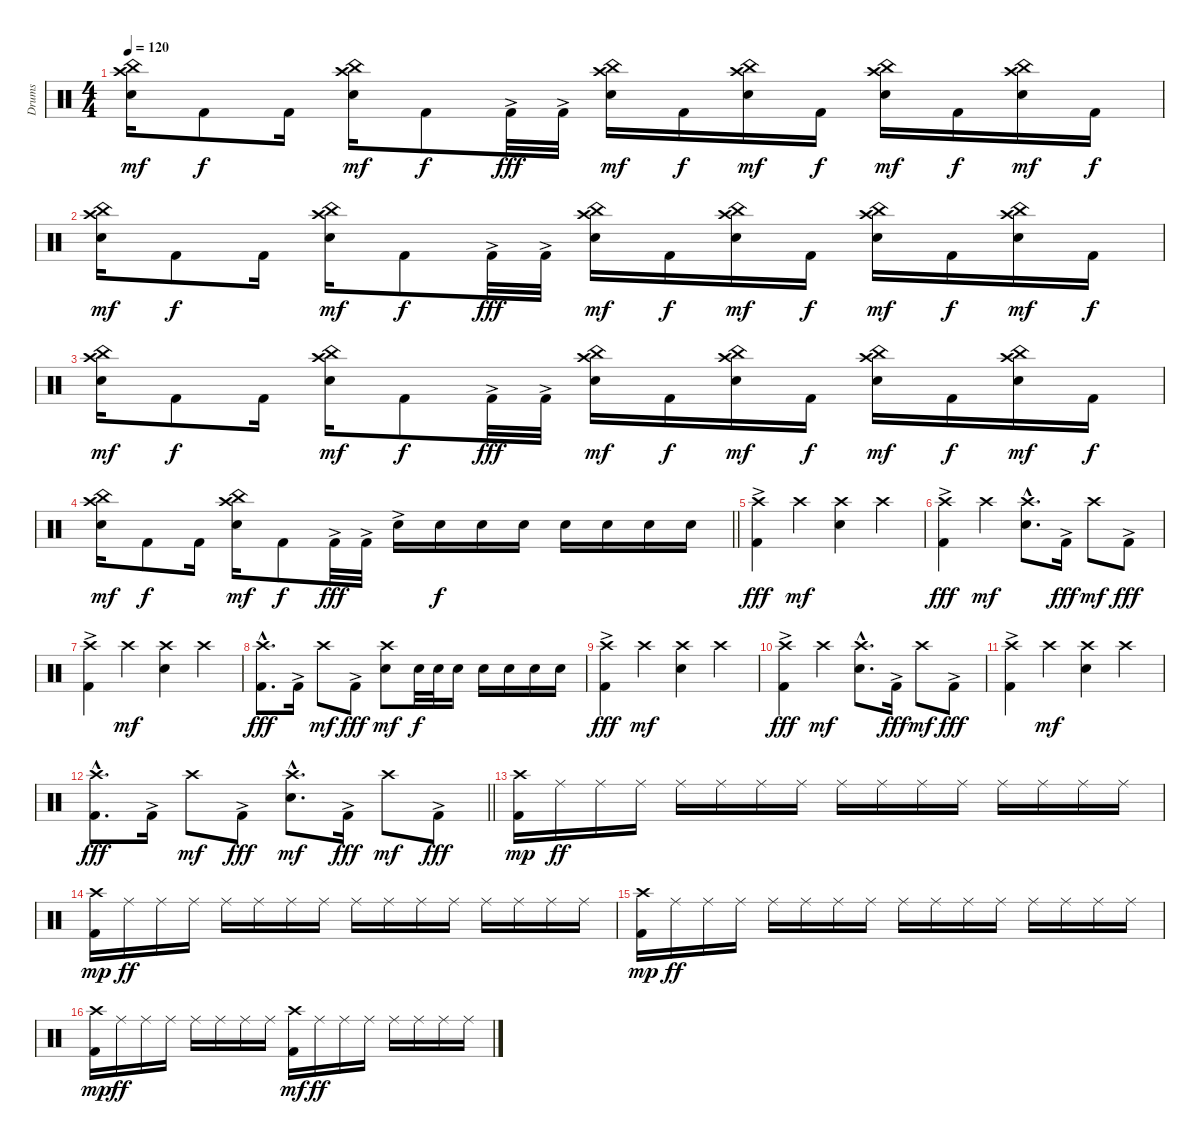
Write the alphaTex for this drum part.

\track ("Drums" "Drums") {instrument percussion}
\staff {score}
\articulation defaults
\ts (4 4)
\tempo 120
\clef neutral
\ks c
("Crash high (hit)" "China (hit)" "Snare (hit) 2").16{dy mf} "Kick (hit) 2".8{dy f} "Kick (hit) 2".16 ("Crash high (hit)" "China (hit)" "Snare (hit) 2").16{dy mf} "Kick (hit) 2".8{dy f} "Kick (hit) 2"{ac}.32{dy fff} "Kick (hit) 2"{ac}.32 ("Crash high (hit)" "China (hit)" "Snare (hit) 2").16{dy mf} "Kick (hit) 2".16{dy f} ("Crash high (hit)" "China (hit)" "Snare (hit) 2").16{dy mf} "Kick (hit) 2".16{dy f} ("Crash high (hit)" "China (hit)" "Snare (hit) 2").16{dy mf} "Kick (hit) 2".16{dy f} ("Crash high (hit)" "China (hit)" "Snare (hit) 2").16{dy mf} "Kick (hit) 2".16{dy f} |
("Crash high (hit)" "China (hit)" "Snare (hit) 2").16{dy mf} "Kick (hit) 2".8{dy f} "Kick (hit) 2".16 ("Crash high (hit)" "China (hit)" "Snare (hit) 2").16{dy mf} "Kick (hit) 2".8{dy f} "Kick (hit) 2"{ac}.32{dy fff} "Kick (hit) 2"{ac}.32 ("Crash high (hit)" "China (hit)" "Snare (hit) 2").16{dy mf} "Kick (hit) 2".16{dy f} ("Crash high (hit)" "China (hit)" "Snare (hit) 2").16{dy mf} "Kick (hit) 2".16{dy f} ("Crash high (hit)" "China (hit)" "Snare (hit) 2").16{dy mf} "Kick (hit) 2".16{dy f} ("Crash high (hit)" "China (hit)" "Snare (hit) 2").16{dy mf} "Kick (hit) 2".16{dy f} |
("Crash high (hit)" "China (hit)" "Snare (hit) 2").16{dy mf} "Kick (hit) 2".8{dy f} "Kick (hit) 2".16 ("Crash high (hit)" "China (hit)" "Snare (hit) 2").16{dy mf} "Kick (hit) 2".8{dy f} "Kick (hit) 2"{ac}.32{dy fff} "Kick (hit) 2"{ac}.32 ("Crash high (hit)" "China (hit)" "Snare (hit) 2").16{dy mf} "Kick (hit) 2".16{dy f} ("Crash high (hit)" "China (hit)" "Snare (hit) 2").16{dy mf} "Kick (hit) 2".16{dy f} ("Crash high (hit)" "China (hit)" "Snare (hit) 2").16{dy mf} "Kick (hit) 2".16{dy f} ("Crash high (hit)" "China (hit)" "Snare (hit) 2").16{dy mf} "Kick (hit) 2".16{dy f} |
\barLineRight lightlight
("Crash high (hit)" "China (hit)" "Snare (hit) 2").16{dy mf} "Kick (hit) 2".8{dy f} "Kick (hit) 2".16 ("Crash high (hit)" "China (hit)" "Snare (hit) 2").16{dy mf} "Kick (hit) 2".8{dy f} "Kick (hit) 2"{ac}.32{dy fff} "Kick (hit) 2"{ac}.32 "Snare (hit) 2"{ac}.16 "Snare (hit) 2".16{dy f} "Snare (hit) 2".16 "Snare (hit) 2".16 "Snare (hit) 2".16 "Snare (hit) 2".16 "Snare (hit) 2".16 "Snare (hit) 2".16 |
("Crash high (hit)"{ac} "Kick (hit) 2"{ac}).4{dy fff} "Crash high (hit)".4{dy mf} ("Crash high (hit)" "Snare (hit) 2").4 "Crash high (hit)".4 |
("Crash high (hit)" "Kick (hit) 2"{ac}).4{dy fff} "Crash high (hit)".4{dy mf} ("Crash high (hit)"{hac} "Snare (hit) 2"{hac}).8{d} "Kick (hit) 2"{ac}.16{dy fff} "Crash high (hit)".8{dy mf} "Kick (hit) 2"{ac}.8{dy fff} |
("Crash high (hit)" "Kick (hit) 2"{ac}).4 "Crash high (hit)".4{dy mf} ("Crash high (hit)" "Snare (hit) 2").4 "Crash high (hit)".4 |
("Crash high (hit)"{hac} "Kick (hit) 2"{hac}).8{d dy fff} "Kick (hit) 2"{ac}.16 "Crash high (hit)".8{dy mf} "Kick (hit) 2"{ac}.8{dy fff} ("Crash high (hit)" "Snare (hit) 2").8{dy mf} "Snare (hit) 2".32{dy f} "Snare (hit) 2".32 "Snare (hit) 2".16 "Snare (hit) 2".16 "Snare (hit) 2".16 "Snare (hit) 2".16 "Snare (hit) 2".16 |
("Crash high (hit)"{ac} "Kick (hit) 2"{ac}).4{dy fff} "Crash high (hit)".4{dy mf} ("Crash high (hit)" "Snare (hit) 2").4 "Crash high (hit)".4 |
("Crash high (hit)" "Kick (hit) 2"{ac}).4{dy fff} "Crash high (hit)".4{dy mf} ("Crash high (hit)"{hac} "Snare (hit) 2"{hac}).8{d} "Kick (hit) 2"{ac}.16{dy fff} "Crash high (hit)".8{dy mf} "Kick (hit) 2"{ac}.8{dy fff} |
("Crash high (hit)" "Kick (hit) 2"{ac}).4 "Crash high (hit)".4{dy mf} ("Crash high (hit)" "Snare (hit) 2").4 "Crash high (hit)".4 |
\barLineRight lightlight
("Crash high (hit)"{hac} "Kick (hit) 2"{hac}).8{d dy fff} "Kick (hit) 2"{ac}.16 "Crash high (hit)".8{dy mf} "Kick (hit) 2"{ac}.8{dy fff} ("Crash high (hit)"{hac} "Snare (hit) 2"{hac}).8{d dy mf} "Kick (hit) 2"{ac}.16{dy fff} "Crash high (hit)".8{dy mf} "Kick (hit) 2"{ac}.8{dy fff} |
("Crash high (hit)" "Kick (hit) 2").16{dy mp} "Ride (middle)".16{dy ff} "Ride (middle)".16 "Ride (middle)".16 "Ride (middle)".16 "Ride (middle)".16 "Ride (middle)".16 "Ride (middle)".16 "Ride (middle)".16 "Ride (middle)".16 "Ride (middle)".16 "Ride (middle)".16 "Ride (middle)".16 "Ride (middle)".16 "Ride (middle)".16 "Ride (middle)".16 |
("Crash high (hit)" "Kick (hit) 2").16{dy mp} "Ride (middle)".16{dy ff} "Ride (middle)".16 "Ride (middle)".16 "Ride (middle)".16 "Ride (middle)".16 "Ride (middle)".16 "Ride (middle)".16 "Ride (middle)".16 "Ride (middle)".16 "Ride (middle)".16 "Ride (middle)".16 "Ride (middle)".16 "Ride (middle)".16 "Ride (middle)".16 "Ride (middle)".16 |
("Crash high (hit)" "Kick (hit) 2").16{dy mp} "Ride (middle)".16{dy ff} "Ride (middle)".16 "Ride (middle)".16 "Ride (middle)".16 "Ride (middle)".16 "Ride (middle)".16 "Ride (middle)".16 "Ride (middle)".16 "Ride (middle)".16 "Ride (middle)".16 "Ride (middle)".16 "Ride (middle)".16 "Ride (middle)".16 "Ride (middle)".16 "Ride (middle)".16 |
("Crash high (hit)" "Kick (hit) 2").16{dy mp} "Ride (middle)".16{dy ff} "Ride (middle)".16 "Ride (middle)".16 "Ride (middle)".16 "Ride (middle)".16 "Ride (middle)".16 "Ride (middle)".16 ("Crash high (hit)" "Kick (hit) 2").16{dy mf} "Ride (middle)".16{dy ff} "Ride (middle)".16 "Ride (middle)".16 "Ride (middle)".16 "Ride (middle)".16 "Ride (middle)".16 "Ride (middle)".16
